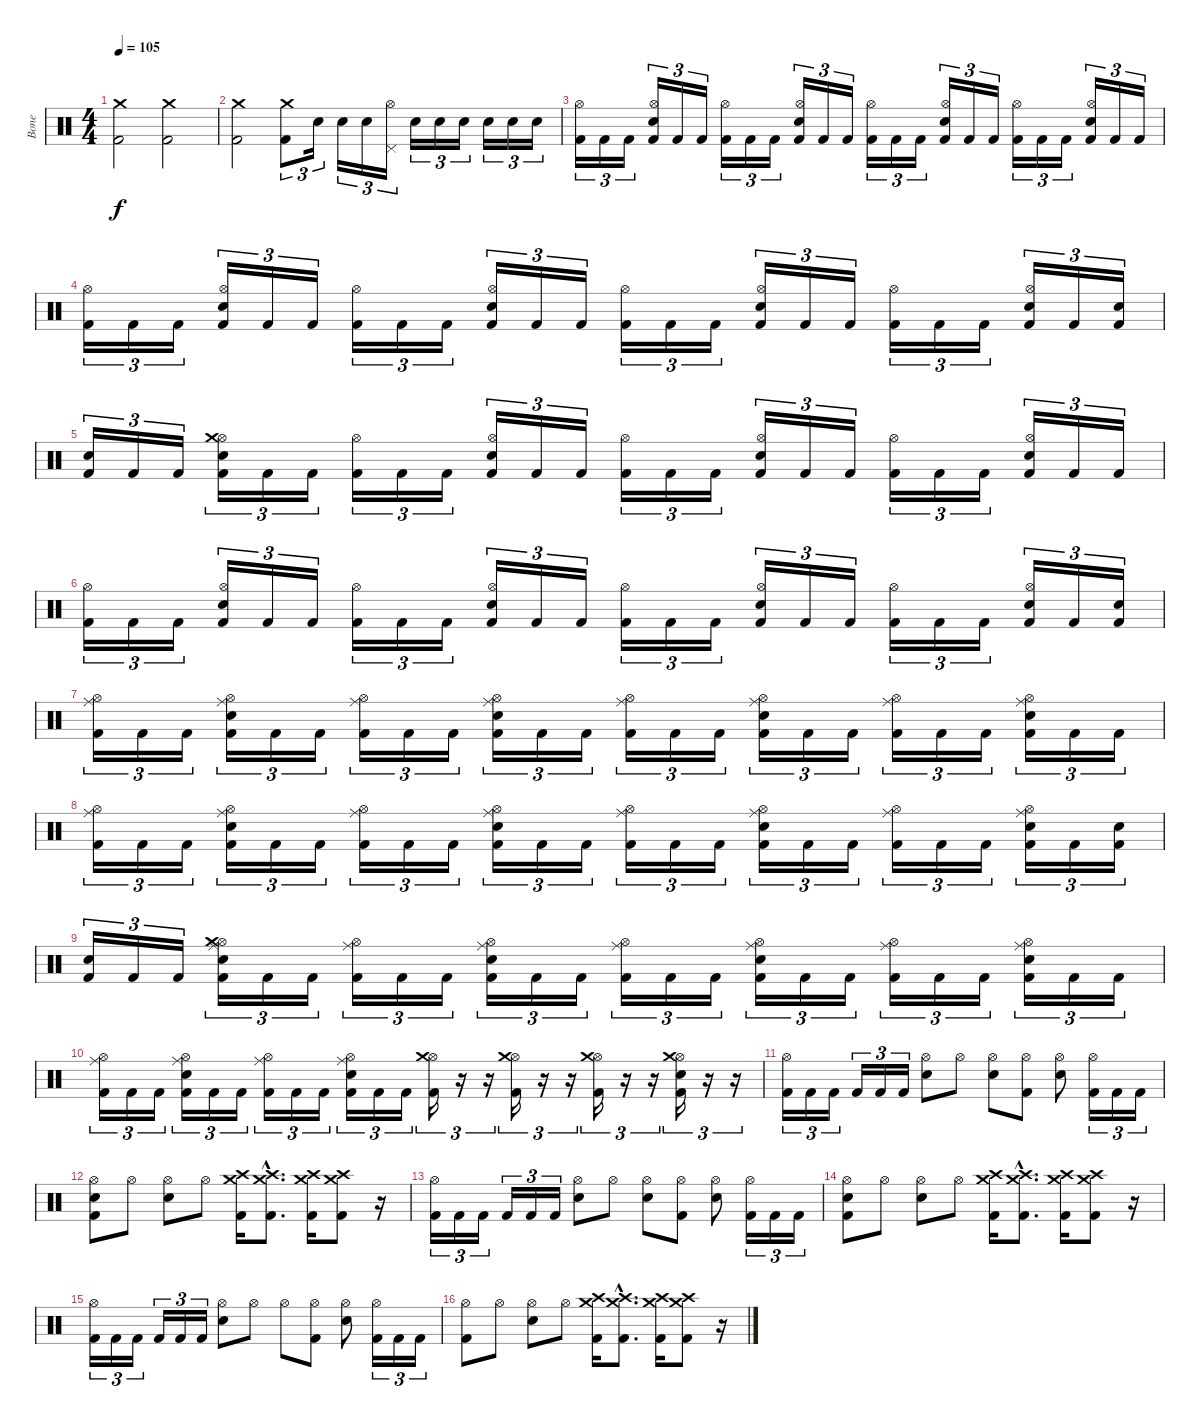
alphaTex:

\track ("Bone " "Bone ") {instrument percussion}
\staff {score}
\articulation defaults
\ts (4 4)
\tempo 105
\clef neutral
\ks c
("Crash medium (hit)" "Kick (hit) 2").2{dy f} ("Crash medium (hit)" "Kick (hit) 2").2 |
("Crash medium (hit)" "Kick (hit) 2").2 ("Crash medium (hit)" "Kick (hit) 2").8{tu (3 2)} "Electric Snare (hit)".16{tu (3 2)} "Electric Snare (hit)".16{tu (3 2)} "Electric Snare (hit)".16{tu (3 2)} ("Pedal Hi-Hat (hit)" "Hi-Hat (open)").16{tu (3 2)} "Electric Snare (hit)".16{tu (3 2)} "Electric Snare (hit)".16{tu (3 2)} "Electric Snare (hit)".16{tu (3 2)} "Electric Snare (hit)".16{tu (3 2)} "Electric Snare (hit)".16{tu (3 2)} "Electric Snare (hit)".16{tu (3 2)} |
("Hi-Hat (open)" "Kick (hit) 2").16{tu (3 2)} "Kick (hit) 2".16{tu (3 2)} "Kick (hit) 2".16{tu (3 2)} ("Hi-Hat (open)" "Snare (hit) 2" "Kick (hit) 2").16{tu (3 2)} "Kick (hit) 2".16{tu (3 2)} "Kick (hit) 2".16{tu (3 2)} ("Hi-Hat (open)" "Kick (hit) 2").16{tu (3 2)} "Kick (hit) 2".16{tu (3 2)} "Kick (hit) 2".16{tu (3 2)} ("Hi-Hat (open)" "Snare (hit) 2" "Kick (hit) 2").16{tu (3 2)} "Kick (hit) 2".16{tu (3 2)} "Kick (hit) 2".16{tu (3 2)} ("Hi-Hat (open)" "Kick (hit) 2").16{tu (3 2)} "Kick (hit) 2".16{tu (3 2)} "Kick (hit) 2".16{tu (3 2)} ("Hi-Hat (open)" "Snare (hit) 2" "Kick (hit) 2").16{tu (3 2)} "Kick (hit) 2".16{tu (3 2)} "Kick (hit) 2".16{tu (3 2)} ("Hi-Hat (open)" "Kick (hit) 2").16{tu (3 2)} "Kick (hit) 2".16{tu (3 2)} "Kick (hit) 2".16{tu (3 2)} ("Hi-Hat (open)" "Snare (hit) 2" "Kick (hit) 2").16{tu (3 2)} "Kick (hit) 2".16{tu (3 2)} "Kick (hit) 2".16{tu (3 2)} |
("Hi-Hat (open)" "Kick (hit) 2").16{tu (3 2)} "Kick (hit) 2".16{tu (3 2)} "Kick (hit) 2".16{tu (3 2)} ("Hi-Hat (open)" "Snare (hit) 2" "Kick (hit) 2").16{tu (3 2)} "Kick (hit) 2".16{tu (3 2)} "Kick (hit) 2".16{tu (3 2)} ("Hi-Hat (open)" "Kick (hit) 2").16{tu (3 2)} "Kick (hit) 2".16{tu (3 2)} "Kick (hit) 2".16{tu (3 2)} ("Hi-Hat (open)" "Snare (hit) 2" "Kick (hit) 2").16{tu (3 2)} "Kick (hit) 2".16{tu (3 2)} "Kick (hit) 2".16{tu (3 2)} ("Hi-Hat (open)" "Kick (hit) 2").16{tu (3 2)} "Kick (hit) 2".16{tu (3 2)} "Kick (hit) 2".16{tu (3 2)} ("Hi-Hat (open)" "Snare (hit) 2" "Kick (hit) 2").16{tu (3 2)} "Kick (hit) 2".16{tu (3 2)} "Kick (hit) 2".16{tu (3 2)} ("Hi-Hat (open)" "Kick (hit) 2").16{tu (3 2)} "Kick (hit) 2".16{tu (3 2)} "Kick (hit) 2".16{tu (3 2)} ("Hi-Hat (open)" "Snare (hit) 2" "Kick (hit) 2").16{tu (3 2)} "Kick (hit) 2".16{tu (3 2)} ("Snare (hit) 2" "Kick (hit) 2").16{tu (3 2)} |
("Snare (hit) 2" "Kick (hit) 2").16{tu (3 2)} "Kick (hit) 2".16{tu (3 2)} "Kick (hit) 2".16{tu (3 2)} ("Hi-Hat (open)" "Crash medium (hit)" "Snare (hit) 2" "Kick (hit) 2").16{tu (3 2)} "Kick (hit) 2".16{tu (3 2)} "Kick (hit) 2".16{tu (3 2)} ("Hi-Hat (open)" "Kick (hit) 2").16{tu (3 2)} "Kick (hit) 2".16{tu (3 2)} "Kick (hit) 2".16{tu (3 2)} ("Hi-Hat (open)" "Snare (hit) 2" "Kick (hit) 2").16{tu (3 2)} "Kick (hit) 2".16{tu (3 2)} "Kick (hit) 2".16{tu (3 2)} ("Hi-Hat (open)" "Kick (hit) 2").16{tu (3 2)} "Kick (hit) 2".16{tu (3 2)} "Kick (hit) 2".16{tu (3 2)} ("Hi-Hat (open)" "Snare (hit) 2" "Kick (hit) 2").16{tu (3 2)} "Kick (hit) 2".16{tu (3 2)} "Kick (hit) 2".16{tu (3 2)} ("Hi-Hat (open)" "Kick (hit) 2").16{tu (3 2)} "Kick (hit) 2".16{tu (3 2)} "Kick (hit) 2".16{tu (3 2)} ("Hi-Hat (open)" "Snare (hit) 2" "Kick (hit) 2").16{tu (3 2)} "Kick (hit) 2".16{tu (3 2)} "Kick (hit) 2".16{tu (3 2)} |
("Hi-Hat (open)" "Kick (hit) 2").16{tu (3 2)} "Kick (hit) 2".16{tu (3 2)} "Kick (hit) 2".16{tu (3 2)} ("Hi-Hat (open)" "Snare (hit) 2" "Kick (hit) 2").16{tu (3 2)} "Kick (hit) 2".16{tu (3 2)} "Kick (hit) 2".16{tu (3 2)} ("Hi-Hat (open)" "Kick (hit) 2").16{tu (3 2)} "Kick (hit) 2".16{tu (3 2)} "Kick (hit) 2".16{tu (3 2)} ("Hi-Hat (open)" "Snare (hit) 2" "Kick (hit) 2").16{tu (3 2)} "Kick (hit) 2".16{tu (3 2)} "Kick (hit) 2".16{tu (3 2)} ("Hi-Hat (open)" "Kick (hit) 2").16{tu (3 2)} "Kick (hit) 2".16{tu (3 2)} "Kick (hit) 2".16{tu (3 2)} ("Hi-Hat (open)" "Snare (hit) 2" "Kick (hit) 2").16{tu (3 2)} "Kick (hit) 2".16{tu (3 2)} "Kick (hit) 2".16{tu (3 2)} ("Hi-Hat (open)" "Kick (hit) 2").16{tu (3 2)} "Kick (hit) 2".16{tu (3 2)} "Kick (hit) 2".16{tu (3 2)} ("Hi-Hat (open)" "Snare (hit) 2" "Kick (hit) 2").16{tu (3 2)} "Kick (hit) 2".16{tu (3 2)} ("Snare (hit) 2" "Kick (hit) 2").16{tu (3 2)} |
("Hi-Hat (open)" "Ride (middle)" "Kick (hit) 2").16{tu (3 2)} "Kick (hit) 2".16{tu (3 2)} "Kick (hit) 2".16{tu (3 2)} ("Hi-Hat (open)" "Ride (middle)" "Snare (hit) 2" "Kick (hit) 2").16{tu (3 2)} "Kick (hit) 2".16{tu (3 2)} "Kick (hit) 2".16{tu (3 2)} ("Hi-Hat (open)" "Ride (middle)" "Kick (hit) 2").16{tu (3 2)} "Kick (hit) 2".16{tu (3 2)} "Kick (hit) 2".16{tu (3 2)} ("Hi-Hat (open)" "Ride (middle)" "Snare (hit) 2" "Kick (hit) 2").16{tu (3 2)} "Kick (hit) 2".16{tu (3 2)} "Kick (hit) 2".16{tu (3 2)} ("Hi-Hat (open)" "Ride (middle)" "Kick (hit) 2").16{tu (3 2)} "Kick (hit) 2".16{tu (3 2)} "Kick (hit) 2".16{tu (3 2)} ("Hi-Hat (open)" "Ride (middle)" "Snare (hit) 2" "Kick (hit) 2").16{tu (3 2)} "Kick (hit) 2".16{tu (3 2)} "Kick (hit) 2".16{tu (3 2)} ("Hi-Hat (open)" "Ride (middle)" "Kick (hit) 2").16{tu (3 2)} "Kick (hit) 2".16{tu (3 2)} "Kick (hit) 2".16{tu (3 2)} ("Hi-Hat (open)" "Ride (middle)" "Snare (hit) 2" "Kick (hit) 2").16{tu (3 2)} "Kick (hit) 2".16{tu (3 2)} "Kick (hit) 2".16{tu (3 2)} |
("Hi-Hat (open)" "Ride (middle)" "Kick (hit) 2").16{tu (3 2)} "Kick (hit) 2".16{tu (3 2)} "Kick (hit) 2".16{tu (3 2)} ("Hi-Hat (open)" "Ride (middle)" "Snare (hit) 2" "Kick (hit) 2").16{tu (3 2)} "Kick (hit) 2".16{tu (3 2)} "Kick (hit) 2".16{tu (3 2)} ("Hi-Hat (open)" "Ride (middle)" "Kick (hit) 2").16{tu (3 2)} "Kick (hit) 2".16{tu (3 2)} "Kick (hit) 2".16{tu (3 2)} ("Hi-Hat (open)" "Ride (middle)" "Snare (hit) 2" "Kick (hit) 2").16{tu (3 2)} "Kick (hit) 2".16{tu (3 2)} "Kick (hit) 2".16{tu (3 2)} ("Hi-Hat (open)" "Ride (middle)" "Kick (hit) 2").16{tu (3 2)} "Kick (hit) 2".16{tu (3 2)} "Kick (hit) 2".16{tu (3 2)} ("Hi-Hat (open)" "Ride (middle)" "Snare (hit) 2" "Kick (hit) 2").16{tu (3 2)} "Kick (hit) 2".16{tu (3 2)} "Kick (hit) 2".16{tu (3 2)} ("Hi-Hat (open)" "Ride (middle)" "Kick (hit) 2").16{tu (3 2)} "Kick (hit) 2".16{tu (3 2)} "Kick (hit) 2".16{tu (3 2)} ("Hi-Hat (open)" "Ride (middle)" "Snare (hit) 2" "Kick (hit) 2").16{tu (3 2)} "Kick (hit) 2".16{tu (3 2)} ("Snare (hit) 2" "Kick (hit) 2").16{tu (3 2)} |
("Snare (hit) 2" "Kick (hit) 2").16{tu (3 2)} "Kick (hit) 2".16{tu (3 2)} "Kick (hit) 2".16{tu (3 2)} ("Hi-Hat (open)" "Crash medium (hit)" "Ride (middle)" "Snare (hit) 2" "Kick (hit) 2").16{tu (3 2)} "Kick (hit) 2".16{tu (3 2)} "Kick (hit) 2".16{tu (3 2)} ("Hi-Hat (open)" "Ride (middle)" "Kick (hit) 2").16{tu (3 2)} "Kick (hit) 2".16{tu (3 2)} "Kick (hit) 2".16{tu (3 2)} ("Hi-Hat (open)" "Ride (middle)" "Snare (hit) 2" "Kick (hit) 2").16{tu (3 2)} "Kick (hit) 2".16{tu (3 2)} "Kick (hit) 2".16{tu (3 2)} ("Hi-Hat (open)" "Ride (middle)" "Kick (hit) 2").16{tu (3 2)} "Kick (hit) 2".16{tu (3 2)} "Kick (hit) 2".16{tu (3 2)} ("Hi-Hat (open)" "Ride (middle)" "Snare (hit) 2" "Kick (hit) 2").16{tu (3 2)} "Kick (hit) 2".16{tu (3 2)} "Kick (hit) 2".16{tu (3 2)} ("Hi-Hat (open)" "Ride (middle)" "Kick (hit) 2").16{tu (3 2)} "Kick (hit) 2".16{tu (3 2)} "Kick (hit) 2".16{tu (3 2)} ("Hi-Hat (open)" "Ride (middle)" "Snare (hit) 2" "Kick (hit) 2").16{tu (3 2)} "Kick (hit) 2".16{tu (3 2)} "Kick (hit) 2".16{tu (3 2)} |
("Hi-Hat (open)" "Ride (middle)" "Kick (hit) 2").16{tu (3 2)} "Kick (hit) 2".16{tu (3 2)} "Kick (hit) 2".16{tu (3 2)} ("Hi-Hat (open)" "Ride (middle)" "Snare (hit) 2" "Kick (hit) 2").16{tu (3 2)} "Kick (hit) 2".16{tu (3 2)} "Kick (hit) 2".16{tu (3 2)} ("Hi-Hat (open)" "Ride (middle)" "Kick (hit) 2").16{tu (3 2)} "Kick (hit) 2".16{tu (3 2)} "Kick (hit) 2".16{tu (3 2)} ("Hi-Hat (open)" "Ride (middle)" "Snare (hit) 2" "Kick (hit) 2").16{tu (3 2)} "Kick (hit) 2".16{tu (3 2)} "Kick (hit) 2".16{tu (3 2)} ("Hi-Hat (open)" "Crash medium (hit)" "Kick (hit) 2").16{tu (3 2)} r.16{tu (3 2)} r.16{tu (3 2)} ("Hi-Hat (open)" "Crash medium (hit)" "Kick (hit) 2").16{tu (3 2)} r.16{tu (3 2)} r.16{tu (3 2)} ("Hi-Hat (open)" "Crash medium (hit)" "Kick (hit) 2").16{tu (3 2)} r.16{tu (3 2)} r.16{tu (3 2)} ("Hi-Hat (open)" "Crash medium (hit)" "Snare (hit) 2" "Kick (hit) 2").16{tu (3 2)} r.16{tu (3 2)} r.16{tu (3 2)} |
("Hi-Hat (open)" "Kick (hit) 2").16{tu (3 2)} "Kick (hit) 2".16{tu (3 2)} "Kick (hit) 2".16{tu (3 2)} "Kick (hit) 2".16{tu (3 2)} "Kick (hit) 2".16{tu (3 2)} "Kick (hit) 2".16{tu (3 2)} ("Hi-Hat (open)" "Electric Snare (hit)").8 "Hi-Hat (open)".8 ("Hi-Hat (open)" "Electric Snare (hit)").8 ("Hi-Hat (open)" "Kick (hit) 2").8 ("Hi-Hat (open)" "Electric Snare (hit)").8 ("Hi-Hat (open)" "Kick (hit) 2").16{tu (3 2)} "Kick (hit) 2".16{tu (3 2)} "Kick (hit) 2".16{tu (3 2)} |
("Hi-Hat (open)" "Electric Snare (hit)" "Kick (hit) 2").8 "Hi-Hat (open)".8 ("Hi-Hat (open)" "Electric Snare (hit)").8 "Hi-Hat (open)".8 ("Crash medium (hit)" "Crash high (hit)" "Kick (hit) 2").16 ("Crash medium (hit)"{hac} "Crash high (hit)"{hac} "Kick (hit) 2"{hac}).8{d} ("Crash medium (hit)" "Crash high (hit)" "Kick (hit) 2").16 ("Crash medium (hit)" "Crash high (hit)" "Kick (hit) 2").8 r.16 |
("Hi-Hat (open)" "Kick (hit) 2").16{tu (3 2)} "Kick (hit) 2".16{tu (3 2)} "Kick (hit) 2".16{tu (3 2)} "Kick (hit) 2".16{tu (3 2)} "Kick (hit) 2".16{tu (3 2)} "Kick (hit) 2".16{tu (3 2)} ("Hi-Hat (open)" "Electric Snare (hit)").8 "Hi-Hat (open)".8 ("Hi-Hat (open)" "Electric Snare (hit)").8 ("Hi-Hat (open)" "Kick (hit) 2").8 ("Hi-Hat (open)" "Electric Snare (hit)").8 ("Hi-Hat (open)" "Kick (hit) 2").16{tu (3 2)} "Kick (hit) 2".16{tu (3 2)} "Kick (hit) 2".16{tu (3 2)} |
("Hi-Hat (open)" "Electric Snare (hit)" "Kick (hit) 2").8 "Hi-Hat (open)".8 ("Hi-Hat (open)" "Electric Snare (hit)").8 "Hi-Hat (open)".8 ("Crash medium (hit)" "Crash high (hit)" "Kick (hit) 2").16 ("Crash medium (hit)"{hac} "Crash high (hit)"{hac} "Kick (hit) 2"{hac}).8{d} ("Crash medium (hit)" "Crash high (hit)" "Kick (hit) 2").16 ("Crash medium (hit)" "Crash high (hit)" "Kick (hit) 2").8 r.16 |
("Hi-Hat (open)" "Kick (hit) 2").16{tu (3 2)} "Kick (hit) 2".16{tu (3 2)} "Kick (hit) 2".16{tu (3 2)} "Kick (hit) 2".16{tu (3 2)} "Kick (hit) 2".16{tu (3 2)} "Kick (hit) 2".16{tu (3 2)} ("Hi-Hat (open)" "Electric Snare (hit)").8 "Hi-Hat (open)".8 "Hi-Hat (open)".8 ("Hi-Hat (open)" "Kick (hit) 2").8 ("Hi-Hat (open)" "Electric Snare (hit)").8 ("Hi-Hat (open)" "Kick (hit) 2").16{tu (3 2)} "Kick (hit) 2".16{tu (3 2)} "Kick (hit) 2".16{tu (3 2)} |
("Hi-Hat (open)" "Kick (hit) 2").8 "Hi-Hat (open)".8 ("Hi-Hat (open)" "Electric Snare (hit)").8 "Hi-Hat (open)".8 ("Crash medium (hit)" "Crash high (hit)" "Kick (hit) 2").16 ("Crash medium (hit)"{hac} "Crash high (hit)"{hac} "Kick (hit) 2"{hac}).8{d} ("Crash medium (hit)" "Crash high (hit)" "Kick (hit) 2").16 ("Crash medium (hit)" "Crash high (hit)" "Kick (hit) 2").8 r.16
